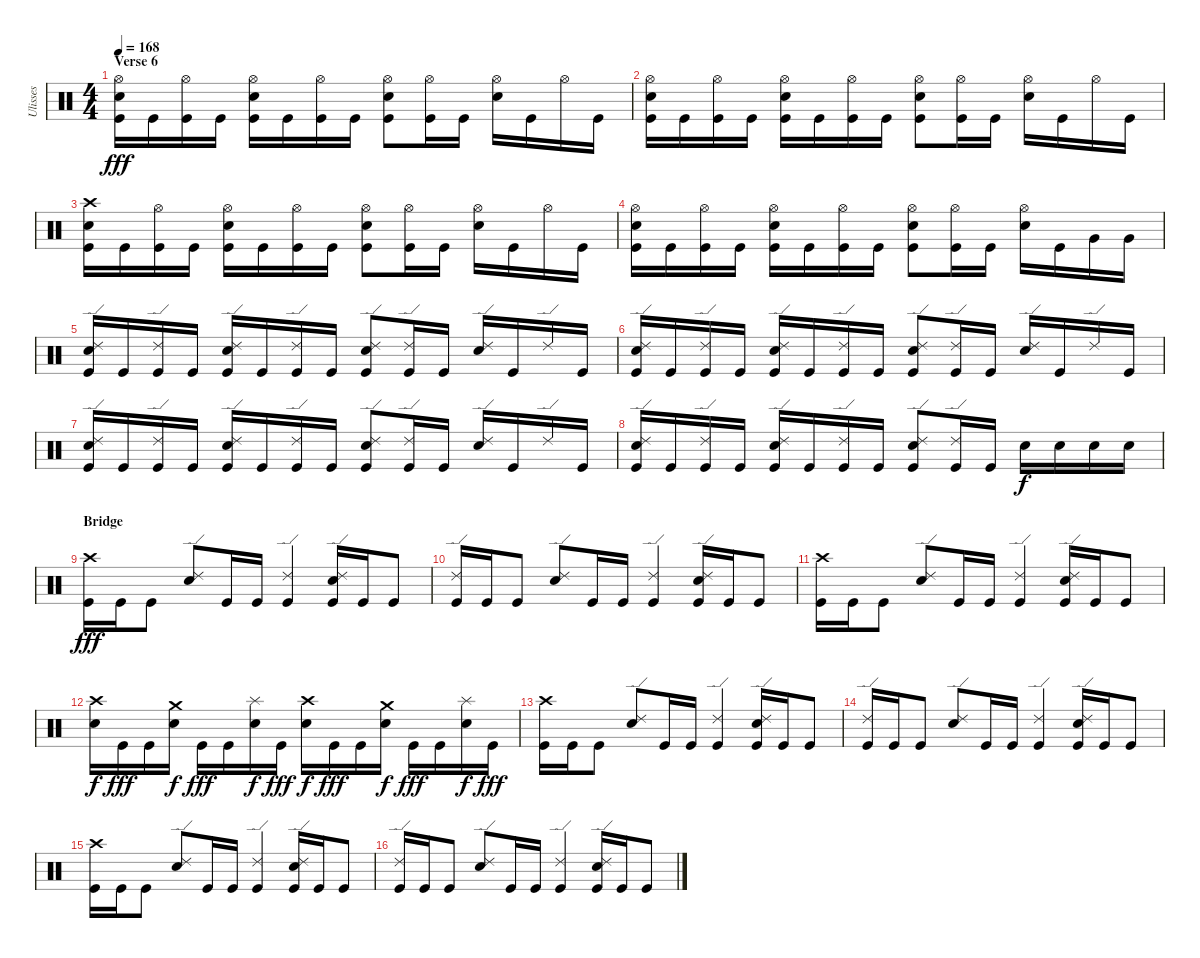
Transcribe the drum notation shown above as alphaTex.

\track ("Ulisses" "Ulisses") {instrument percussion}
\staff {score}
\articulation defaults
\ts (4 4)
\section ("" "Verse 6")
\tempo 168
\clef neutral
\ks c
("Hi-Hat (open)" "Snare (hit) 2" "Kick (hit)").16{dy fff} "Kick (hit)".16 ("Hi-Hat (open)" "Kick (hit)").16 "Kick (hit)".16 ("Hi-Hat (open)" "Snare (hit) 2" "Kick (hit)").16 "Kick (hit)".16 ("Hi-Hat (open)" "Kick (hit)").16 "Kick (hit)".16 ("Hi-Hat (open)" "Snare (hit) 2" "Kick (hit)").8 ("Hi-Hat (open)" "Kick (hit)").16 "Kick (hit)".16 ("Hi-Hat (open)" "Snare (hit) 2").16 "Kick (hit)".16 "Hi-Hat (open)".16 "Kick (hit)".16 |
("Hi-Hat (open)" "Snare (hit) 2" "Kick (hit)").16 "Kick (hit)".16 ("Hi-Hat (open)" "Kick (hit)").16 "Kick (hit)".16 ("Hi-Hat (open)" "Snare (hit) 2" "Kick (hit)").16 "Kick (hit)".16 ("Hi-Hat (open)" "Kick (hit)").16 "Kick (hit)".16 ("Hi-Hat (open)" "Snare (hit) 2" "Kick (hit)").8 ("Hi-Hat (open)" "Kick (hit)").16 "Kick (hit)".16 ("Hi-Hat (open)" "Snare (hit) 2").16 "Kick (hit)".16 "Hi-Hat (open)".16 "Kick (hit)".16 |
("Crash high (hit)" "Snare (hit) 2" "Kick (hit)").16 "Kick (hit)".16 ("Hi-Hat (open)" "Kick (hit)").16 "Kick (hit)".16 ("Hi-Hat (open)" "Snare (hit) 2" "Kick (hit)").16 "Kick (hit)".16 ("Hi-Hat (open)" "Kick (hit)").16 "Kick (hit)".16 ("Hi-Hat (open)" "Snare (hit) 2" "Kick (hit)").8 ("Hi-Hat (open)" "Kick (hit)").16 "Kick (hit)".16 ("Hi-Hat (open)" "Snare (hit) 2").16 "Kick (hit)".16 "Hi-Hat (open)".16 "Kick (hit)".16 |
("Hi-Hat (open)" "Snare (hit) 2" "Kick (hit)").16 "Kick (hit)".16 ("Hi-Hat (open)" "Kick (hit)").16 "Kick (hit)".16 ("Hi-Hat (open)" "Snare (hit) 2" "Kick (hit)").16 "Kick (hit)".16 ("Hi-Hat (open)" "Kick (hit)").16 "Kick (hit)".16 ("Hi-Hat (open)" "Snare (hit) 2" "Kick (hit)").8 ("Hi-Hat (open)" "Kick (hit)").16 "Kick (hit)".16 ("Hi-Hat (open)" "Snare (hit) 2").16 "Kick (hit)".16 "Very Low Tom (hit)".16 "Very Low Tom (hit)".16 |
("Ride (edge) 2" "Snare (hit) 2" "Kick (hit)").16 "Kick (hit)".16 ("Ride (edge) 2" "Kick (hit)").16 "Kick (hit)".16 ("Ride (edge) 2" "Snare (hit) 2" "Kick (hit)").16 "Kick (hit)".16 ("Ride (edge) 2" "Kick (hit)").16 "Kick (hit)".16 ("Ride (edge) 2" "Snare (hit) 2" "Kick (hit)").8 ("Ride (edge) 2" "Kick (hit)").16 "Kick (hit)".16 ("Ride (edge) 2" "Snare (hit) 2").16 "Kick (hit)".16 "Ride (edge) 2".16 "Kick (hit)".16 |
("Ride (edge) 2" "Snare (hit) 2" "Kick (hit)").16 "Kick (hit)".16 ("Ride (edge) 2" "Kick (hit)").16 "Kick (hit)".16 ("Ride (edge) 2" "Snare (hit) 2" "Kick (hit)").16 "Kick (hit)".16 ("Ride (edge) 2" "Kick (hit)").16 "Kick (hit)".16 ("Ride (edge) 2" "Snare (hit) 2" "Kick (hit)").8 ("Ride (edge) 2" "Kick (hit)").16 "Kick (hit)".16 ("Ride (edge) 2" "Snare (hit) 2").16 "Kick (hit)".16 "Ride (edge) 2".16 "Kick (hit)".16 |
("Ride (edge) 2" "Snare (hit) 2" "Kick (hit)").16 "Kick (hit)".16 ("Ride (edge) 2" "Kick (hit)").16 "Kick (hit)".16 ("Ride (edge) 2" "Snare (hit) 2" "Kick (hit)").16 "Kick (hit)".16 ("Ride (edge) 2" "Kick (hit)").16 "Kick (hit)".16 ("Ride (edge) 2" "Snare (hit) 2" "Kick (hit)").8 ("Ride (edge) 2" "Kick (hit)").16 "Kick (hit)".16 ("Ride (edge) 2" "Snare (hit) 2").16 "Kick (hit)".16 "Ride (edge) 2".16 "Kick (hit)".16 |
("Ride (edge) 2" "Snare (hit) 2" "Kick (hit)").16 "Kick (hit)".16 ("Ride (edge) 2" "Kick (hit)").16 "Kick (hit)".16 ("Ride (edge) 2" "Snare (hit) 2" "Kick (hit)").16 "Kick (hit)".16 ("Ride (edge) 2" "Kick (hit)").16 "Kick (hit)".16 ("Ride (edge) 2" "Snare (hit) 2" "Kick (hit)").8 ("Ride (edge) 2" "Kick (hit)").16 "Kick (hit)".16 "Snare (hit) 2".16{dy f} "Snare (hit) 2".16 "Snare (hit) 2".16 "Snare (hit) 2".16 |
\section ("" "Bridge")
("Crash high (hit)" "Kick (hit)").16{dy fff} "Kick (hit)".16 "Kick (hit)".8 ("Ride (edge) 2" "Snare (hit) 2").8 "Kick (hit)".16 "Kick (hit)".16 ("Ride (edge) 2" "Kick (hit)").4 ("Ride (edge) 2" "Snare (hit) 2" "Kick (hit)").16 "Kick (hit)".16 "Kick (hit)".8 |
("Ride (edge) 2" "Kick (hit)").16 "Kick (hit)".16 "Kick (hit)".8 ("Ride (edge) 2" "Snare (hit) 2").8 "Kick (hit)".16 "Kick (hit)".16 ("Ride (edge) 2" "Kick (hit)").4 ("Ride (edge) 2" "Snare (hit) 2" "Kick (hit)").16 "Kick (hit)".16 "Kick (hit)".8 |
("Crash high (hit)" "Kick (hit)").16 "Kick (hit)".16 "Kick (hit)".8 ("Ride (edge) 2" "Snare (hit) 2").8 "Kick (hit)".16 "Kick (hit)".16 ("Ride (edge) 2" "Kick (hit)").4 ("Ride (edge) 2" "Snare (hit) 2" "Kick (hit)").16 "Kick (hit)".16 "Kick (hit)".8 |
("Crash high (hit)" "Snare (hit) 2").16{dy f} "Kick (hit)".16{dy fff} "Kick (hit)".16 ("Crash medium (hit)" "Snare (hit) 2").16{dy f} "Kick (hit)".16{dy fff} "Kick (hit)".16 ("Splash (hit)" "Snare (hit) 2").16{dy f} "Kick (hit)".16{dy fff} ("Crash high (hit)" "Snare (hit) 2").16{dy f} "Kick (hit)".16{dy fff} "Kick (hit)".16 ("Crash medium (hit)" "Snare (hit) 2").16{dy f} "Kick (hit)".16{dy fff} "Kick (hit)".16 ("Splash (hit)" "Snare (hit) 2").16{dy f} "Kick (hit)".16{dy fff} |
("Crash high (hit)" "Kick (hit)").16 "Kick (hit)".16 "Kick (hit)".8 ("Ride (edge) 2" "Snare (hit) 2").8 "Kick (hit)".16 "Kick (hit)".16 ("Ride (edge) 2" "Kick (hit)").4 ("Ride (edge) 2" "Snare (hit) 2" "Kick (hit)").16 "Kick (hit)".16 "Kick (hit)".8 |
("Ride (edge) 2" "Kick (hit)").16 "Kick (hit)".16 "Kick (hit)".8 ("Ride (edge) 2" "Snare (hit) 2").8 "Kick (hit)".16 "Kick (hit)".16 ("Ride (edge) 2" "Kick (hit)").4 ("Ride (edge) 2" "Snare (hit) 2" "Kick (hit)").16 "Kick (hit)".16 "Kick (hit)".8 |
("Crash high (hit)" "Kick (hit)").16 "Kick (hit)".16 "Kick (hit)".8 ("Ride (edge) 2" "Snare (hit) 2").8 "Kick (hit)".16 "Kick (hit)".16 ("Ride (edge) 2" "Kick (hit)").4 ("Ride (edge) 2" "Snare (hit) 2" "Kick (hit)").16 "Kick (hit)".16 "Kick (hit)".8 |
("Ride (edge) 2" "Kick (hit)").16 "Kick (hit)".16 "Kick (hit)".8 ("Ride (edge) 2" "Snare (hit) 2").8 "Kick (hit)".16 "Kick (hit)".16 ("Ride (edge) 2" "Kick (hit)").4 ("Ride (edge) 2" "Snare (hit) 2" "Kick (hit)").16 "Kick (hit)".16 "Kick (hit)".8
